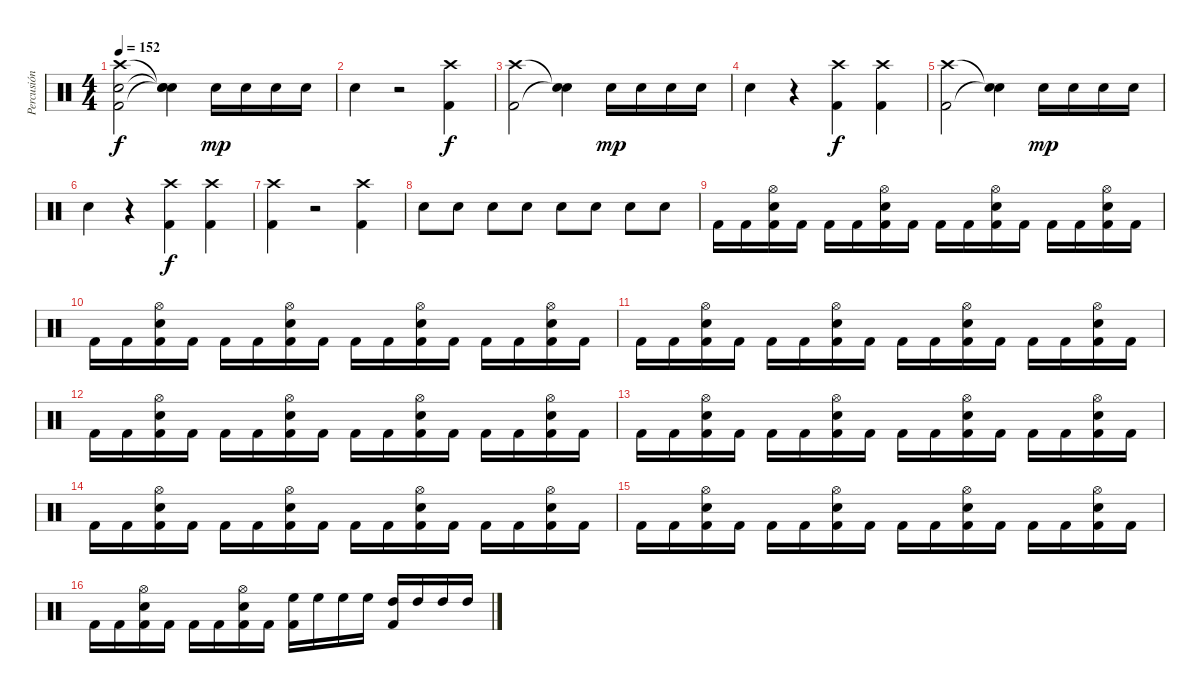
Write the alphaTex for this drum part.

\track ("Percusión" "Percusión") {instrument percussion}
\staff {score}
\articulation defaults
\ts (4 4)
\tempo 152
\clef neutral
\ks c
("Crash high (hit)" "Snare (hit) 2" "Kick (hit) 2").2{dy f} ("Snare (hit)"{t} "Snare (hit)"{t} "Snare (hit)"{t}).4 "Snare (hit) 2".16{dy mp} "Snare (hit) 2".16 "Snare (hit) 2".16 "Snare (hit) 2".16 |
"Snare (hit) 2".4 r.2 ("Crash high (hit)" "Kick (hit) 2").4{dy f} |
("Crash high (hit)" "Kick (hit) 2").2 ("Snare (hit)"{t} "Snare (hit)"{t}).4 "Snare (hit) 2".16{dy mp} "Snare (hit) 2".16 "Snare (hit) 2".16 "Snare (hit) 2".16 |
"Snare (hit) 2".4 r.4 ("Crash high (hit)" "Kick (hit) 2").4{dy f} ("Crash high (hit)" "Kick (hit) 2").4 |
("Crash high (hit)" "Kick (hit) 2").2 ("Snare (hit)"{t} "Snare (hit)"{t}).4 "Snare (hit) 2".16{dy mp} "Snare (hit) 2".16 "Snare (hit) 2".16 "Snare (hit) 2".16 |
"Snare (hit) 2".4 r.4 ("Crash high (hit)" "Kick (hit) 2").4{dy f} ("Crash high (hit)" "Kick (hit) 2").4 |
("Crash high (hit)" "Kick (hit) 2").4 r.2 ("Crash high (hit)" "Kick (hit) 2").4 |
"Snare (hit) 2".8 "Snare (hit) 2".8 "Snare (hit) 2".8 "Snare (hit) 2".8 "Snare (hit) 2".8 "Snare (hit) 2".8 "Snare (hit) 2".8 "Snare (hit) 2".8 |
"Kick (hit) 2".16 "Kick (hit) 2".16 ("Hi-Hat (open)" "Snare (hit) 2" "Kick (hit) 2").16 "Kick (hit) 2".16 "Kick (hit) 2".16 "Kick (hit) 2".16 ("Hi-Hat (open)" "Snare (hit) 2" "Kick (hit) 2").16 "Kick (hit) 2".16 "Kick (hit) 2".16 "Kick (hit) 2".16 ("Hi-Hat (open)" "Snare (hit) 2" "Kick (hit) 2").16 "Kick (hit) 2".16 "Kick (hit) 2".16 "Kick (hit) 2".16 ("Hi-Hat (open)" "Snare (hit) 2" "Kick (hit) 2").16 "Kick (hit) 2".16 |
"Kick (hit) 2".16 "Kick (hit) 2".16 ("Hi-Hat (open)" "Snare (hit) 2" "Kick (hit) 2").16 "Kick (hit) 2".16 "Kick (hit) 2".16 "Kick (hit) 2".16 ("Hi-Hat (open)" "Snare (hit) 2" "Kick (hit) 2").16 "Kick (hit) 2".16 "Kick (hit) 2".16 "Kick (hit) 2".16 ("Hi-Hat (open)" "Snare (hit) 2" "Kick (hit) 2").16 "Kick (hit) 2".16 "Kick (hit) 2".16 "Kick (hit) 2".16 ("Hi-Hat (open)" "Snare (hit) 2" "Kick (hit) 2").16 "Kick (hit) 2".16 |
"Kick (hit) 2".16 "Kick (hit) 2".16 ("Hi-Hat (open)" "Snare (hit) 2" "Kick (hit) 2").16 "Kick (hit) 2".16 "Kick (hit) 2".16 "Kick (hit) 2".16 ("Hi-Hat (open)" "Snare (hit) 2" "Kick (hit) 2").16 "Kick (hit) 2".16 "Kick (hit) 2".16 "Kick (hit) 2".16 ("Hi-Hat (open)" "Snare (hit) 2" "Kick (hit) 2").16 "Kick (hit) 2".16 "Kick (hit) 2".16 "Kick (hit) 2".16 ("Hi-Hat (open)" "Snare (hit) 2" "Kick (hit) 2").16 "Kick (hit) 2".16 |
"Kick (hit) 2".16 "Kick (hit) 2".16 ("Hi-Hat (open)" "Snare (hit) 2" "Kick (hit) 2").16 "Kick (hit) 2".16 "Kick (hit) 2".16 "Kick (hit) 2".16 ("Hi-Hat (open)" "Snare (hit) 2" "Kick (hit) 2").16 "Kick (hit) 2".16 "Kick (hit) 2".16 "Kick (hit) 2".16 ("Hi-Hat (open)" "Snare (hit) 2" "Kick (hit) 2").16 "Kick (hit) 2".16 "Kick (hit) 2".16 "Kick (hit) 2".16 ("Hi-Hat (open)" "Snare (hit) 2" "Kick (hit) 2").16 "Kick (hit) 2".16 |
"Kick (hit) 2".16 "Kick (hit) 2".16 ("Hi-Hat (open)" "Snare (hit) 2" "Kick (hit) 2").16 "Kick (hit) 2".16 "Kick (hit) 2".16 "Kick (hit) 2".16 ("Hi-Hat (open)" "Snare (hit) 2" "Kick (hit) 2").16 "Kick (hit) 2".16 "Kick (hit) 2".16 "Kick (hit) 2".16 ("Hi-Hat (open)" "Snare (hit) 2" "Kick (hit) 2").16 "Kick (hit) 2".16 "Kick (hit) 2".16 "Kick (hit) 2".16 ("Hi-Hat (open)" "Snare (hit) 2" "Kick (hit) 2").16 "Kick (hit) 2".16 |
"Kick (hit) 2".16 "Kick (hit) 2".16 ("Hi-Hat (open)" "Snare (hit) 2" "Kick (hit) 2").16 "Kick (hit) 2".16 "Kick (hit) 2".16 "Kick (hit) 2".16 ("Hi-Hat (open)" "Snare (hit) 2" "Kick (hit) 2").16 "Kick (hit) 2".16 "Kick (hit) 2".16 "Kick (hit) 2".16 ("Hi-Hat (open)" "Snare (hit) 2" "Kick (hit) 2").16 "Kick (hit) 2".16 "Kick (hit) 2".16 "Kick (hit) 2".16 ("Hi-Hat (open)" "Snare (hit) 2" "Kick (hit) 2").16 "Kick (hit) 2".16 |
"Kick (hit) 2".16 "Kick (hit) 2".16 ("Hi-Hat (open)" "Snare (hit) 2" "Kick (hit) 2").16 "Kick (hit) 2".16 "Kick (hit) 2".16 "Kick (hit) 2".16 ("Hi-Hat (open)" "Snare (hit) 2" "Kick (hit) 2").16 "Kick (hit) 2".16 "Kick (hit) 2".16 "Kick (hit) 2".16 ("Hi-Hat (open)" "Snare (hit) 2" "Kick (hit) 2").16 "Kick (hit) 2".16 "Kick (hit) 2".16 "Kick (hit) 2".16 ("Hi-Hat (open)" "Snare (hit) 2" "Kick (hit) 2").16 "Kick (hit) 2".16 |
"Kick (hit) 2".16 "Kick (hit) 2".16 ("Hi-Hat (open)" "Snare (hit) 2" "Kick (hit) 2").16 "Kick (hit) 2".16 "Kick (hit) 2".16 "Kick (hit) 2".16 ("Hi-Hat (open)" "Snare (hit) 2" "Kick (hit) 2").16 "Kick (hit) 2".16 ("Kick (hit) 2" "High Floor Tom (hit)").16 "High Floor Tom (hit)".16 "High Floor Tom (hit)".16 "High Floor Tom (hit)".16 ("Kick (hit) 2" "High Tom (hit)").16 "High Tom (hit)".16 "High Tom (hit)".16 "High Tom (hit)".16
